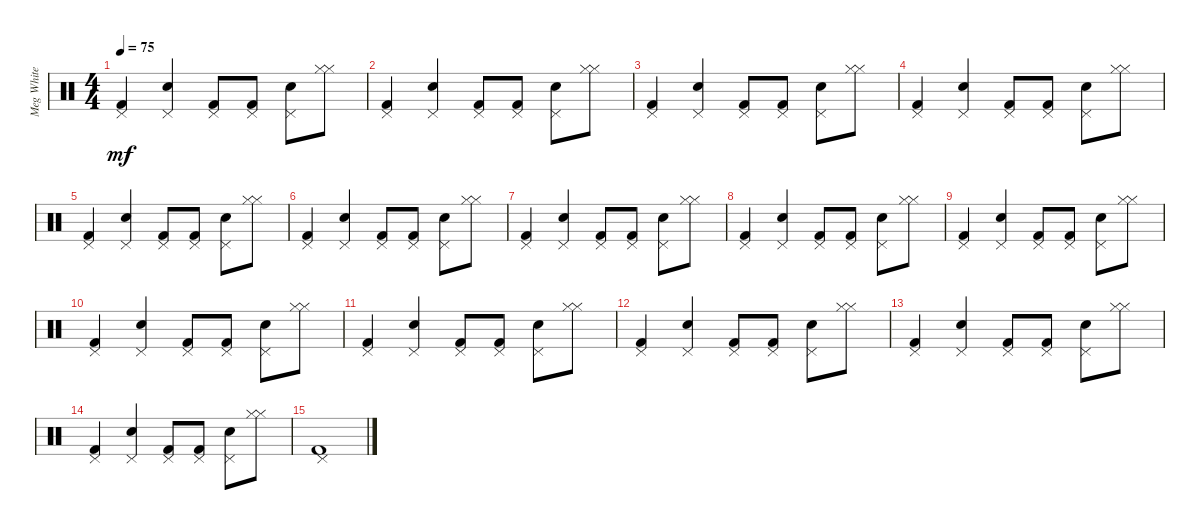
\track ("Meg White" "Meg White") {instrument percussion}
\staff {score}
\articulation defaults
\ts (4 4)
\tempo 75
\clef neutral
\ks c
("Pedal Hi-Hat (hit)" "Kick (hit) 2").4{dy mf} ("Pedal Hi-Hat (hit)" "Electric Snare (hit)").4 ("Pedal Hi-Hat (hit)" "Kick (hit) 2").8 ("Pedal Hi-Hat (hit)" "Kick (hit) 2").8 ("Pedal Hi-Hat (hit)" "Electric Snare (hit)").8 ("Hi-Hat (closed)" "Hi-Hat (closed)").8 |
("Pedal Hi-Hat (hit)" "Kick (hit) 2").4 ("Pedal Hi-Hat (hit)" "Electric Snare (hit)").4 ("Pedal Hi-Hat (hit)" "Kick (hit) 2").8 ("Pedal Hi-Hat (hit)" "Kick (hit) 2").8 ("Pedal Hi-Hat (hit)" "Electric Snare (hit)").8 ("Hi-Hat (closed)" "Hi-Hat (closed)").8 |
("Pedal Hi-Hat (hit)" "Kick (hit) 2").4 ("Pedal Hi-Hat (hit)" "Electric Snare (hit)").4 ("Pedal Hi-Hat (hit)" "Kick (hit) 2").8 ("Pedal Hi-Hat (hit)" "Kick (hit) 2").8 ("Pedal Hi-Hat (hit)" "Electric Snare (hit)").8 ("Hi-Hat (closed)" "Hi-Hat (closed)").8 |
("Pedal Hi-Hat (hit)" "Kick (hit) 2").4 ("Pedal Hi-Hat (hit)" "Electric Snare (hit)").4 ("Pedal Hi-Hat (hit)" "Kick (hit) 2").8 ("Pedal Hi-Hat (hit)" "Kick (hit) 2").8 ("Pedal Hi-Hat (hit)" "Electric Snare (hit)").8 ("Hi-Hat (closed)" "Hi-Hat (closed)").8 |
("Pedal Hi-Hat (hit)" "Kick (hit) 2").4 ("Pedal Hi-Hat (hit)" "Electric Snare (hit)").4 ("Pedal Hi-Hat (hit)" "Kick (hit) 2").8 ("Pedal Hi-Hat (hit)" "Kick (hit) 2").8 ("Pedal Hi-Hat (hit)" "Electric Snare (hit)").8 ("Hi-Hat (closed)" "Hi-Hat (closed)").8 |
("Pedal Hi-Hat (hit)" "Kick (hit) 2").4 ("Pedal Hi-Hat (hit)" "Electric Snare (hit)").4 ("Pedal Hi-Hat (hit)" "Kick (hit) 2").8 ("Pedal Hi-Hat (hit)" "Kick (hit) 2").8 ("Pedal Hi-Hat (hit)" "Electric Snare (hit)").8 ("Hi-Hat (closed)" "Hi-Hat (closed)").8 |
("Pedal Hi-Hat (hit)" "Kick (hit) 2").4 ("Pedal Hi-Hat (hit)" "Electric Snare (hit)").4 ("Pedal Hi-Hat (hit)" "Kick (hit) 2").8 ("Pedal Hi-Hat (hit)" "Kick (hit) 2").8 ("Pedal Hi-Hat (hit)" "Electric Snare (hit)").8 ("Hi-Hat (closed)" "Hi-Hat (closed)").8 |
("Pedal Hi-Hat (hit)" "Kick (hit) 2").4 ("Pedal Hi-Hat (hit)" "Electric Snare (hit)").4 ("Pedal Hi-Hat (hit)" "Kick (hit) 2").8 ("Pedal Hi-Hat (hit)" "Kick (hit) 2").8 ("Pedal Hi-Hat (hit)" "Electric Snare (hit)").8 ("Hi-Hat (closed)" "Hi-Hat (closed)").8 |
("Pedal Hi-Hat (hit)" "Kick (hit) 2").4 ("Pedal Hi-Hat (hit)" "Electric Snare (hit)").4 ("Pedal Hi-Hat (hit)" "Kick (hit) 2").8 ("Pedal Hi-Hat (hit)" "Kick (hit) 2").8 ("Pedal Hi-Hat (hit)" "Electric Snare (hit)").8 ("Hi-Hat (closed)" "Hi-Hat (closed)").8 |
("Pedal Hi-Hat (hit)" "Kick (hit) 2").4 ("Pedal Hi-Hat (hit)" "Electric Snare (hit)").4 ("Pedal Hi-Hat (hit)" "Kick (hit) 2").8 ("Pedal Hi-Hat (hit)" "Kick (hit) 2").8 ("Pedal Hi-Hat (hit)" "Electric Snare (hit)").8 ("Hi-Hat (closed)" "Hi-Hat (closed)").8 |
("Pedal Hi-Hat (hit)" "Kick (hit) 2").4 ("Pedal Hi-Hat (hit)" "Electric Snare (hit)").4 ("Pedal Hi-Hat (hit)" "Kick (hit) 2").8 ("Pedal Hi-Hat (hit)" "Kick (hit) 2").8 ("Pedal Hi-Hat (hit)" "Electric Snare (hit)").8 ("Hi-Hat (closed)" "Hi-Hat (closed)").8 |
("Pedal Hi-Hat (hit)" "Kick (hit) 2").4 ("Pedal Hi-Hat (hit)" "Electric Snare (hit)").4 ("Pedal Hi-Hat (hit)" "Kick (hit) 2").8 ("Pedal Hi-Hat (hit)" "Kick (hit) 2").8 ("Pedal Hi-Hat (hit)" "Electric Snare (hit)").8 ("Hi-Hat (closed)" "Hi-Hat (closed)").8 |
("Pedal Hi-Hat (hit)" "Kick (hit) 2").4 ("Pedal Hi-Hat (hit)" "Electric Snare (hit)").4 ("Pedal Hi-Hat (hit)" "Kick (hit) 2").8 ("Pedal Hi-Hat (hit)" "Kick (hit) 2").8 ("Pedal Hi-Hat (hit)" "Electric Snare (hit)").8 ("Hi-Hat (closed)" "Hi-Hat (closed)").8 |
("Pedal Hi-Hat (hit)" "Kick (hit) 2").4 ("Pedal Hi-Hat (hit)" "Electric Snare (hit)").4 ("Pedal Hi-Hat (hit)" "Kick (hit) 2").8 ("Pedal Hi-Hat (hit)" "Kick (hit) 2").8 ("Pedal Hi-Hat (hit)" "Electric Snare (hit)").8 ("Hi-Hat (closed)" "Hi-Hat (closed)").8 |
("Pedal Hi-Hat (hit)" "Kick (hit) 2").1
